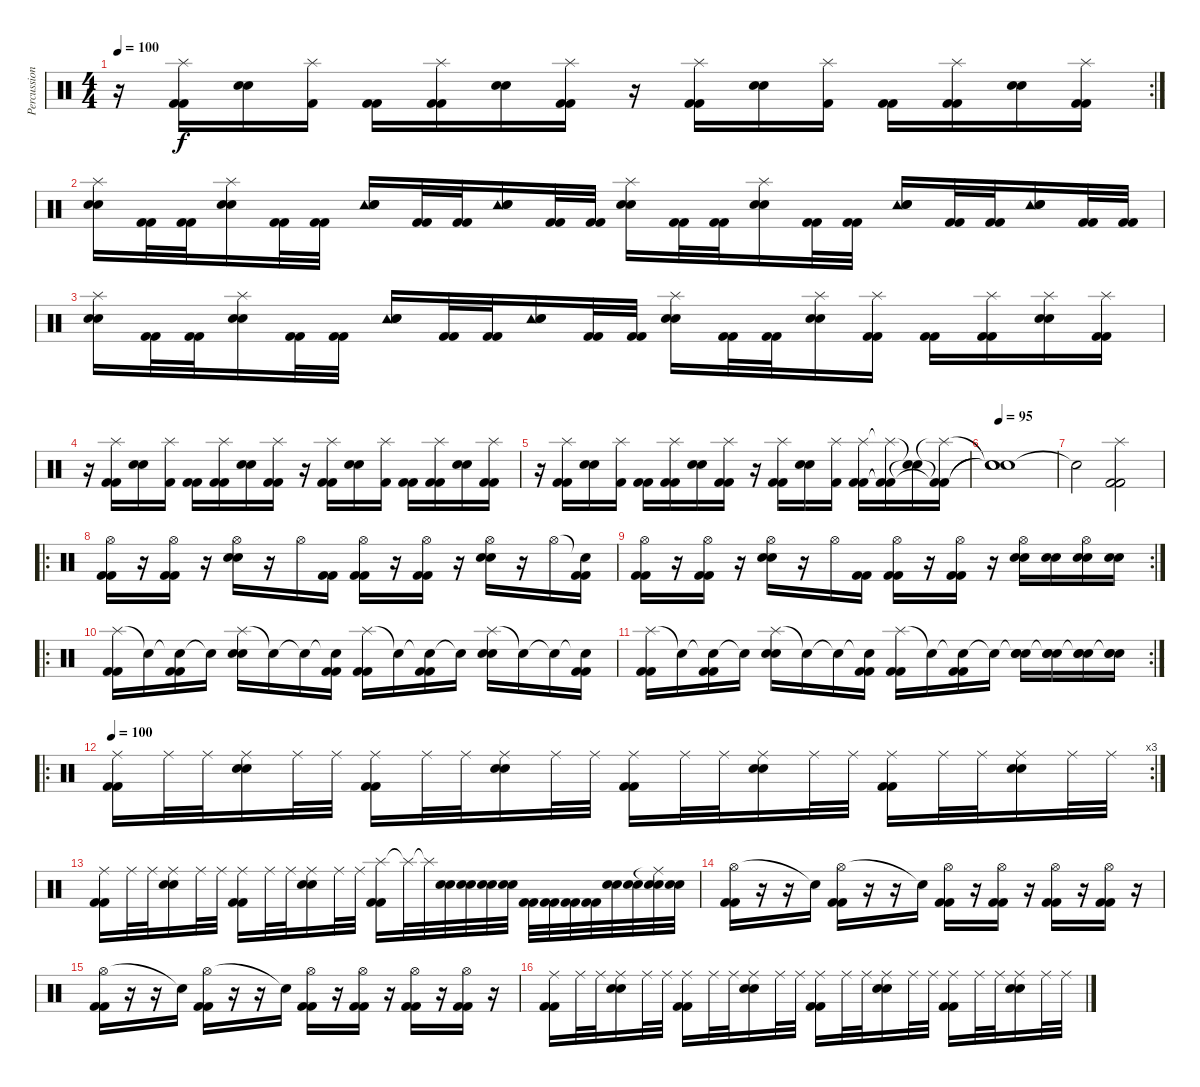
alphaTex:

\track ("Percussion Dolmayan" "Percussion") {instrument percussion}
\staff {score}
\articulation defaults
\rc 2
\ts (4 4)
\tempo 100
\clef neutral
\ks c
r.16{dy f} ("Splash (hit)" "Kick (hit) 2" "Kick (hit) 2").16 ("Electric Snare (hit)" "Electric Snare (hit)").16 ("Splash (hit)" "Kick (hit) 2").16 ("Kick (hit) 2" "Kick (hit) 2").16 ("Splash (hit)" "Kick (hit) 2" "Kick (hit) 2").16 ("Electric Snare (hit)" "Electric Snare (hit)").16 ("Splash (hit)" "Kick (hit) 2" "Kick (hit) 2").16 r.16 ("Splash (hit)" "Kick (hit) 2" "Kick (hit) 2").16 ("Electric Snare (hit)" "Electric Snare (hit)").16 ("Splash (hit)" "Kick (hit) 2").16 ("Kick (hit) 2" "Kick (hit) 2").16 ("Splash (hit)" "Kick (hit) 2" "Kick (hit) 2").16 ("Electric Snare (hit)" "Electric Snare (hit)").16 ("Splash (hit)" "Kick (hit) 2" "Kick (hit) 2").16 |
("Splash (hit)" "Electric Snare (hit)" "Electric Snare (hit)").16 ("Kick (hit) 2" "Kick (hit) 2").32 ("Kick (hit) 2" "Kick (hit) 2").32 ("Splash (hit)" "Electric Snare (hit)" "Electric Snare (hit)").16 ("Kick (hit) 2" "Kick (hit) 2").32 ("Kick (hit) 2" "Kick (hit) 2").32 ("Tambourine (hit)" "Electric Snare (hit)" "Electric Snare (hit)").16 ("Kick (hit) 2" "Kick (hit) 2").32 ("Kick (hit) 2" "Kick (hit) 2").32 ("Tambourine (hit)" "Electric Snare (hit)" "Electric Snare (hit)").16 ("Kick (hit) 2" "Kick (hit) 2").32 ("Kick (hit) 2" "Kick (hit) 2").32 ("Splash (hit)" "Electric Snare (hit)" "Electric Snare (hit)").16 ("Kick (hit) 2" "Kick (hit) 2").32 ("Kick (hit) 2" "Kick (hit) 2").32 ("Splash (hit)" "Electric Snare (hit)" "Electric Snare (hit)").16 ("Kick (hit) 2" "Kick (hit) 2").32 ("Kick (hit) 2" "Kick (hit) 2").32 ("Tambourine (hit)" "Electric Snare (hit)" "Electric Snare (hit)").16 ("Kick (hit) 2" "Kick (hit) 2").32 ("Kick (hit) 2" "Kick (hit) 2").32 ("Tambourine (hit)" "Electric Snare (hit)" "Electric Snare (hit)").16 ("Kick (hit) 2" "Kick (hit) 2").32 ("Kick (hit) 2" "Kick (hit) 2").32 |
("Splash (hit)" "Electric Snare (hit)" "Electric Snare (hit)").16 ("Kick (hit) 2" "Kick (hit) 2").32 ("Kick (hit) 2" "Kick (hit) 2").32 ("Splash (hit)" "Electric Snare (hit)" "Electric Snare (hit)").16 ("Kick (hit) 2" "Kick (hit) 2").32 ("Kick (hit) 2" "Kick (hit) 2").32 ("Tambourine (hit)" "Electric Snare (hit)" "Electric Snare (hit)").16 ("Kick (hit) 2" "Kick (hit) 2").32 ("Kick (hit) 2" "Kick (hit) 2").32 ("Tambourine (hit)" "Electric Snare (hit)" "Electric Snare (hit)").16 ("Kick (hit) 2" "Kick (hit) 2").32 ("Kick (hit) 2" "Kick (hit) 2").32 ("Splash (hit)" "Electric Snare (hit)" "Electric Snare (hit)").16 ("Kick (hit) 2" "Kick (hit) 2").32 ("Kick (hit) 2" "Kick (hit) 2").32 ("Splash (hit)" "Electric Snare (hit)" "Electric Snare (hit)").16 ("Splash (hit)" "Kick (hit) 2" "Kick (hit) 2").16 ("Kick (hit) 2" "Kick (hit) 2").16 ("Splash (hit)" "Kick (hit) 2" "Kick (hit) 2").16 ("Splash (hit)" "Electric Snare (hit)" "Electric Snare (hit)").16 ("Splash (hit)" "Kick (hit) 2" "Kick (hit) 2").16 |
r.16 ("Splash (hit)" "Kick (hit) 2" "Kick (hit) 2").16 ("Electric Snare (hit)" "Electric Snare (hit)").16 ("Splash (hit)" "Kick (hit) 2").16 ("Kick (hit) 2" "Kick (hit) 2").16 ("Splash (hit)" "Kick (hit) 2" "Kick (hit) 2").16 ("Electric Snare (hit)" "Electric Snare (hit)").16 ("Splash (hit)" "Kick (hit) 2" "Kick (hit) 2").16 r.16 ("Splash (hit)" "Kick (hit) 2" "Kick (hit) 2").16 ("Electric Snare (hit)" "Electric Snare (hit)").16 ("Splash (hit)" "Kick (hit) 2").16 ("Kick (hit) 2" "Kick (hit) 2").16 ("Splash (hit)" "Kick (hit) 2" "Kick (hit) 2").16 ("Electric Snare (hit)" "Electric Snare (hit)").16 ("Splash (hit)" "Kick (hit) 2" "Kick (hit) 2").16 |
r.16 ("Splash (hit)" "Kick (hit) 2" "Kick (hit) 2").16 ("Electric Snare (hit)" "Electric Snare (hit)").16 ("Splash (hit)" "Kick (hit) 2").16 ("Kick (hit) 2" "Kick (hit) 2").16 ("Splash (hit)" "Kick (hit) 2" "Kick (hit) 2").16 ("Electric Snare (hit)" "Electric Snare (hit)").16 ("Splash (hit)" "Kick (hit) 2" "Kick (hit) 2").16 r.16 ("Splash (hit)" "Kick (hit) 2" "Kick (hit) 2").16 ("Electric Snare (hit)" "Electric Snare (hit)").16 ("Splash (hit)" "Kick (hit) 2").16 ("Splash (hit)" "Kick (hit) 2" "Kick (hit) 2").16 ("Splash (hit)"{t} "Kick (hit) 2"{t} "Kick (hit) 2"{t}).16 ("Electric Snare (hit)"{t} "Electric Snare (hit)"{t}).16 ("Splash (hit)"{t} "Kick (hit) 2"{t} "Kick (hit) 2"{t}).16 |
\tempo 95
("Snare (hit)"{t} "Snare (hit)"{t} "Snare (hit)"{t}).1 |
"Snare (hit)"{t}.2 ("Splash (hit)" "Kick (hit) 2" "Kick (hit) 2").2 |
\ro
("Hi-Hat (open)" "Kick (hit) 2" "Kick (hit) 2").16 r.16 ("Hi-Hat (open)" "Kick (hit) 2" "Kick (hit) 2").16 r.16 ("Hi-Hat (open)" "Electric Snare (hit)" "Electric Snare (hit)").16 r.16 "Hi-Hat (open)".16 ("Kick (hit) 2" "Kick (hit) 2").16 ("Hi-Hat (open)" "Kick (hit) 2" "Kick (hit) 2").16 r.16 ("Hi-Hat (open)" "Kick (hit) 2" "Kick (hit) 2").16 r.16 ("Hi-Hat (open)" "Electric Snare (hit)" "Electric Snare (hit)").16 r.16 "Hi-Hat (open)".16 ("Snare (hit)"{t} "Kick (hit) 2" "Kick (hit) 2").16 |
\rc 2
("Hi-Hat (open)" "Kick (hit) 2" "Kick (hit) 2").16 r.16 ("Hi-Hat (open)" "Kick (hit) 2" "Kick (hit) 2").16 r.16 ("Hi-Hat (open)" "Electric Snare (hit)" "Electric Snare (hit)").16 r.16 "Hi-Hat (open)".16 ("Kick (hit) 2" "Kick (hit) 2").16 ("Hi-Hat (open)" "Kick (hit) 2" "Kick (hit) 2").16 r.16 ("Hi-Hat (open)" "Kick (hit) 2" "Kick (hit) 2").16 r.16 ("Hi-Hat (open)" "Electric Snare (hit)" "Electric Snare (hit)").16 ("Electric Snare (hit)" "Electric Snare (hit)").16 ("Hi-Hat (open)" "Electric Snare (hit)" "Electric Snare (hit)").16 ("Electric Snare (hit)" "Electric Snare (hit)").16 |
\ro
("Splash (hit)" "Kick (hit) 2" "Kick (hit) 2").16 "Snare (hit)"{t}.16 ("Snare (hit)"{t} "Kick (hit) 2" "Kick (hit) 2").16 "Snare (hit)"{t}.16 ("Splash (hit)" "Electric Snare (hit)" "Electric Snare (hit)").16 "Snare (hit)"{t}.16 "Snare (hit)"{t}.16 ("Snare (hit)"{t} "Kick (hit) 2" "Kick (hit) 2").16 ("Splash (hit)" "Kick (hit) 2" "Kick (hit) 2").16 "Snare (hit)"{t}.16 ("Snare (hit)"{t} "Kick (hit) 2" "Kick (hit) 2").16 "Snare (hit)"{t}.16 ("Splash (hit)" "Electric Snare (hit)" "Electric Snare (hit)").16 "Snare (hit)"{t}.16 "Snare (hit)"{t}.16 ("Snare (hit)"{t} "Kick (hit) 2" "Kick (hit) 2").16 |
\rc 2
("Splash (hit)" "Kick (hit) 2" "Kick (hit) 2").16 "Snare (hit)"{t}.16 ("Snare (hit)"{t} "Kick (hit) 2" "Kick (hit) 2").16 "Snare (hit)"{t}.16 ("Splash (hit)" "Electric Snare (hit)" "Electric Snare (hit)").16 "Snare (hit)"{t}.16 "Snare (hit)"{t}.16 ("Snare (hit)"{t} "Kick (hit) 2" "Kick (hit) 2").16 ("Splash (hit)" "Kick (hit) 2" "Kick (hit) 2").16 "Snare (hit)"{t}.16 ("Snare (hit)"{t} "Kick (hit) 2" "Kick (hit) 2").16 "Snare (hit)"{t}.16 ("Snare (hit)"{t} "Electric Snare (hit)" "Electric Snare (hit)").16 ("Snare (hit)"{t} "Electric Snare (hit)" "Electric Snare (hit)").16 ("Snare (hit)"{t} "Electric Snare (hit)" "Electric Snare (hit)").16 ("Snare (hit)"{t} "Electric Snare (hit)" "Electric Snare (hit)").16 |
\ro
\rc 3
\tempo 100
("Ride (middle)" "Kick (hit) 2" "Kick (hit) 2").16 "Ride (middle)".32 "Ride (middle)".32 ("Ride (middle)" "Electric Snare (hit)" "Electric Snare (hit)").16 "Ride (middle)".32 "Ride (middle)".32 ("Ride (middle)" "Kick (hit) 2" "Kick (hit) 2").16 "Ride (middle)".32 "Ride (middle)".32 ("Ride (middle)" "Electric Snare (hit)" "Electric Snare (hit)").16 "Ride (middle)".32 "Ride (middle)".32 ("Ride (middle)" "Kick (hit) 2" "Kick (hit) 2").16 "Ride (middle)".32 "Ride (middle)".32 ("Ride (middle)" "Electric Snare (hit)" "Electric Snare (hit)").16 "Ride (middle)".32 "Ride (middle)".32 ("Ride (middle)" "Kick (hit) 2" "Kick (hit) 2").16 "Ride (middle)".32 "Ride (middle)".32 ("Ride (middle)" "Electric Snare (hit)" "Electric Snare (hit)").16 "Ride (middle)".32 "Ride (middle)".32 |
("Ride (middle)" "Kick (hit) 2" "Kick (hit) 2").16 "Ride (middle)".32 "Ride (middle)".32 ("Ride (middle)" "Electric Snare (hit)" "Electric Snare (hit)").16 "Ride (middle)".32 "Ride (middle)".32 ("Ride (middle)" "Kick (hit) 2" "Kick (hit) 2").16 "Ride (middle)".32 "Ride (middle)".32 ("Ride (middle)" "Electric Snare (hit)" "Electric Snare (hit)").16 "Ride (middle)".32 "Ride (middle)".32 ("Splash (hit)" "Kick (hit) 2" "Kick (hit) 2").16 "Splash (hit)"{t}.32 "Splash (hit)"{t}.32 ("Electric Snare (hit)" "Electric Snare (hit)").32 ("Electric Snare (hit)" "Electric Snare (hit)").32 ("Electric Snare (hit)" "Electric Snare (hit)").32 ("Electric Snare (hit)" "Electric Snare (hit)").32 ("Kick (hit) 2" "Kick (hit) 2").32 ("Kick (hit) 2" "Kick (hit) 2").32 ("Kick (hit) 2" "Kick (hit) 2").32 ("Kick (hit) 2" "Kick (hit) 2").32 ("Electric Snare (hit)" "Electric Snare (hit)").32 ("Electric Snare (hit)" "Electric Snare (hit)").32 ("Ride (middle)"{t} "Electric Snare (hit)" "Electric Snare (hit)").32 ("Electric Snare (hit)" "Electric Snare (hit)").32 |
("Hi-Hat (open)" "Kick (hit) 2" "Kick (hit) 2").16 r.16 r.16 "Snare (hit)"{t}.16 ("Hi-Hat (open)" "Kick (hit) 2" "Kick (hit) 2").16 r.16 r.16 "Snare (hit)"{t}.16 ("Hi-Hat (open)" "Kick (hit) 2" "Kick (hit) 2").16 r.16 ("Hi-Hat (open)" "Kick (hit) 2" "Kick (hit) 2").16 r.16 ("Hi-Hat (open)" "Kick (hit) 2" "Kick (hit) 2").16 r.16 ("Hi-Hat (open)" "Kick (hit) 2" "Kick (hit) 2").16 r.16 |
("Hi-Hat (open)" "Kick (hit) 2" "Kick (hit) 2").16 r.16 r.16 "Snare (hit)"{t}.16 ("Hi-Hat (open)" "Kick (hit) 2" "Kick (hit) 2").16 r.16 r.16 "Snare (hit)"{t}.16 ("Hi-Hat (open)" "Kick (hit) 2" "Kick (hit) 2").16 r.16 ("Hi-Hat (open)" "Kick (hit) 2" "Kick (hit) 2").16 r.16 ("Hi-Hat (open)" "Kick (hit) 2" "Kick (hit) 2").16 r.16 ("Hi-Hat (open)" "Kick (hit) 2" "Kick (hit) 2").16 r.16 |
("Ride (middle)" "Kick (hit) 2" "Kick (hit) 2").16 "Ride (middle)".32 "Ride (middle)".32 ("Ride (middle)" "Electric Snare (hit)" "Electric Snare (hit)").16 "Ride (middle)".32 "Ride (middle)".32 ("Ride (middle)" "Kick (hit) 2" "Kick (hit) 2").16 "Ride (middle)".32 "Ride (middle)".32 ("Ride (middle)" "Electric Snare (hit)" "Electric Snare (hit)").16 "Ride (middle)".32 "Ride (middle)".32 ("Ride (middle)" "Kick (hit) 2" "Kick (hit) 2").16 "Ride (middle)".32 "Ride (middle)".32 ("Ride (middle)" "Electric Snare (hit)" "Electric Snare (hit)").16 "Ride (middle)".32 "Ride (middle)".32 ("Ride (middle)" "Kick (hit) 2" "Kick (hit) 2").16 "Ride (middle)".32 "Ride (middle)".32 ("Ride (middle)" "Electric Snare (hit)" "Electric Snare (hit)").16 "Ride (middle)".32 "Ride (middle)".32
